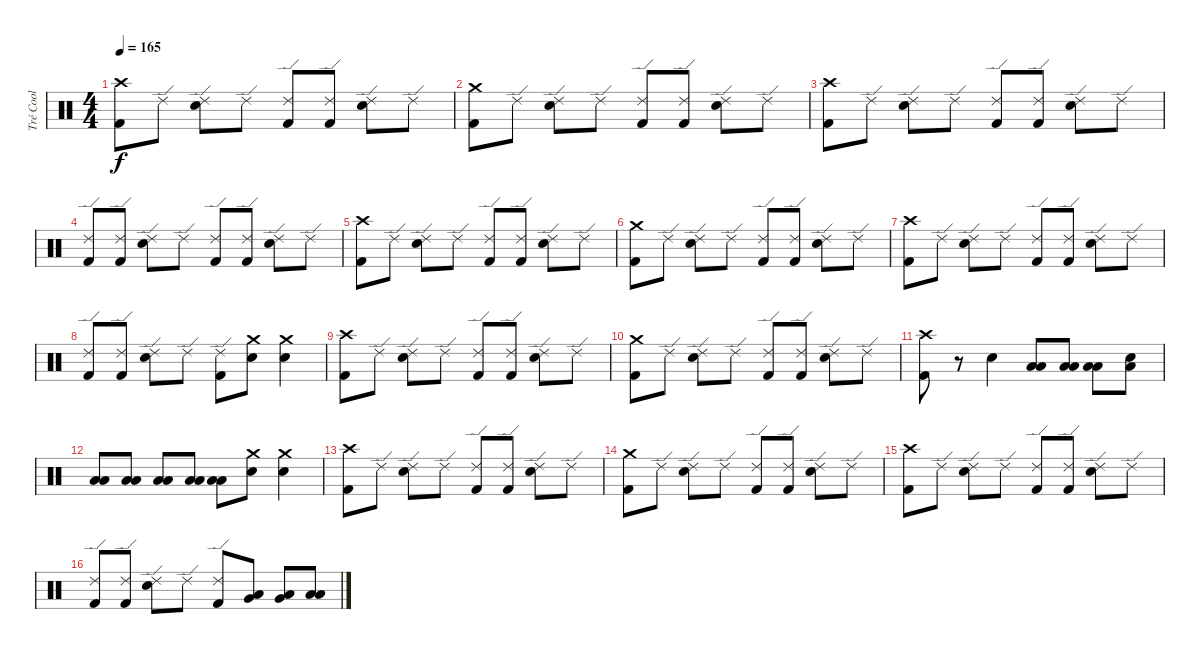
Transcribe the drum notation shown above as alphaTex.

\track ("Tré Cool" "Tré Cool") {instrument percussion}
\staff {score}
\articulation defaults
\ts (4 4)
\tempo 165
\clef neutral
\ks c
("Crash high (hit)" "Kick (hit) 2").8{dy f} "Ride (edge) 2".8 ("Ride (edge) 2" "Electric Snare (hit)").8 "Ride (edge) 2".8 ("Ride (edge) 2" "Kick (hit) 2").8 ("Ride (edge) 2" "Kick (hit) 2").8 ("Ride (edge) 2" "Electric Snare (hit)").8 "Ride (edge) 2".8 |
("Crash medium (hit)" "Kick (hit) 2").8 "Ride (edge) 2".8 ("Ride (edge) 2" "Electric Snare (hit)").8 "Ride (edge) 2".8 ("Ride (edge) 2" "Kick (hit) 2").8 ("Ride (edge) 2" "Kick (hit) 2").8 ("Ride (edge) 2" "Electric Snare (hit)").8 "Ride (edge) 2".8 |
("Crash high (hit)" "Kick (hit) 2").8 "Ride (edge) 2".8 ("Ride (edge) 2" "Electric Snare (hit)").8 "Ride (edge) 2".8 ("Ride (edge) 2" "Kick (hit) 2").8 ("Ride (edge) 2" "Kick (hit) 2").8 ("Ride (edge) 2" "Electric Snare (hit)").8 "Ride (edge) 2".8 |
("Ride (edge) 2" "Kick (hit) 2").8 ("Ride (edge) 2" "Kick (hit) 2").8 ("Ride (edge) 2" "Electric Snare (hit)").8 "Ride (edge) 2".8 ("Ride (edge) 2" "Kick (hit) 2").8 ("Ride (edge) 2" "Kick (hit) 2").8 ("Ride (edge) 2" "Electric Snare (hit)").8 "Ride (edge) 2".8 |
("Crash high (hit)" "Kick (hit) 2").8 "Ride (edge) 2".8 ("Ride (edge) 2" "Electric Snare (hit)").8 "Ride (edge) 2".8 ("Ride (edge) 2" "Kick (hit) 2").8 ("Ride (edge) 2" "Kick (hit) 2").8 ("Ride (edge) 2" "Electric Snare (hit)").8 "Ride (edge) 2".8 |
("Crash medium (hit)" "Kick (hit) 2").8 "Ride (edge) 2".8 ("Ride (edge) 2" "Electric Snare (hit)").8 "Ride (edge) 2".8 ("Ride (edge) 2" "Kick (hit) 2").8 ("Ride (edge) 2" "Kick (hit) 2").8 ("Ride (edge) 2" "Electric Snare (hit)").8 "Ride (edge) 2".8 |
("Crash high (hit)" "Kick (hit) 2").8 "Ride (edge) 2".8 ("Ride (edge) 2" "Electric Snare (hit)").8 "Ride (edge) 2".8 ("Ride (edge) 2" "Kick (hit) 2").8 ("Ride (edge) 2" "Kick (hit) 2").8 ("Ride (edge) 2" "Electric Snare (hit)").8 "Ride (edge) 2".8 |
("Ride (edge) 2" "Kick (hit) 2").8 ("Ride (edge) 2" "Kick (hit) 2").8 ("Ride (edge) 2" "Electric Snare (hit)").8 "Ride (edge) 2".8 ("Ride (edge) 2" "Kick (hit) 2").8 ("Crash medium (hit)" "Electric Snare (hit)").8 ("Crash medium (hit)" "Electric Snare (hit)").4 |
("Crash high (hit)" "Kick (hit) 2").8 "Ride (edge) 2".8 ("Ride (edge) 2" "Electric Snare (hit)").8 "Ride (edge) 2".8 ("Ride (edge) 2" "Kick (hit) 2").8 ("Ride (edge) 2" "Kick (hit) 2").8 ("Ride (edge) 2" "Electric Snare (hit)").8 "Ride (edge) 2".8 |
("Crash medium (hit)" "Kick (hit) 2").8 "Ride (edge) 2".8 ("Ride (edge) 2" "Electric Snare (hit)").8 "Ride (edge) 2".8 ("Ride (edge) 2" "Kick (hit) 2").8 ("Ride (edge) 2" "Kick (hit) 2").8 ("Ride (edge) 2" "Electric Snare (hit)").8 "Ride (edge) 2".8 |
("Crash high (hit)" "Kick (hit) 2").8 r.8 "Electric Snare (hit)".4 ("Low Tom (hit)" "Low Floor Tom (hit)").8 ("Low Tom (hit)" "Low Floor Tom (hit)").8 ("Low Tom (hit)" "Low Floor Tom (hit)").8 ("Electric Snare (hit)" "Low Floor Tom (hit)").8 |
("Low Tom (hit)" "Low Floor Tom (hit)").8 ("Low Tom (hit)" "Low Floor Tom (hit)").8 ("Low Tom (hit)" "Low Floor Tom (hit)").8 ("Low Tom (hit)" "Low Floor Tom (hit)").8 ("Low Tom (hit)" "Low Floor Tom (hit)").8 ("Crash medium (hit)" "Electric Snare (hit)").8 ("Crash medium (hit)" "Electric Snare (hit)").4 |
("Crash high (hit)" "Kick (hit) 2").8 "Ride (edge) 2".8 ("Ride (edge) 2" "Electric Snare (hit)").8 "Ride (edge) 2".8 ("Ride (edge) 2" "Kick (hit) 2").8 ("Ride (edge) 2" "Kick (hit) 2").8 ("Ride (edge) 2" "Electric Snare (hit)").8 "Ride (edge) 2".8 |
("Crash medium (hit)" "Kick (hit) 2").8 "Ride (edge) 2".8 ("Ride (edge) 2" "Electric Snare (hit)").8 "Ride (edge) 2".8 ("Ride (edge) 2" "Kick (hit) 2").8 ("Ride (edge) 2" "Kick (hit) 2").8 ("Ride (edge) 2" "Electric Snare (hit)").8 "Ride (edge) 2".8 |
("Crash high (hit)" "Kick (hit) 2").8 "Ride (edge) 2".8 ("Ride (edge) 2" "Electric Snare (hit)").8 "Ride (edge) 2".8 ("Ride (edge) 2" "Kick (hit) 2").8 ("Ride (edge) 2" "Kick (hit) 2").8 ("Ride (edge) 2" "Electric Snare (hit)").8 "Ride (edge) 2".8 |
("Ride (edge) 2" "Kick (hit) 2").8 ("Ride (edge) 2" "Kick (hit) 2").8 ("Ride (edge) 2" "Electric Snare (hit)").8 "Ride (edge) 2".8 ("Ride (edge) 2" "Kick (hit) 2").8 ("Low Tom (hit)" "Very Low Tom (hit)").8 ("Low Tom (hit)" "Very Low Tom (hit)").8 ("Low Tom (hit)" "Low Floor Tom (hit)").8
